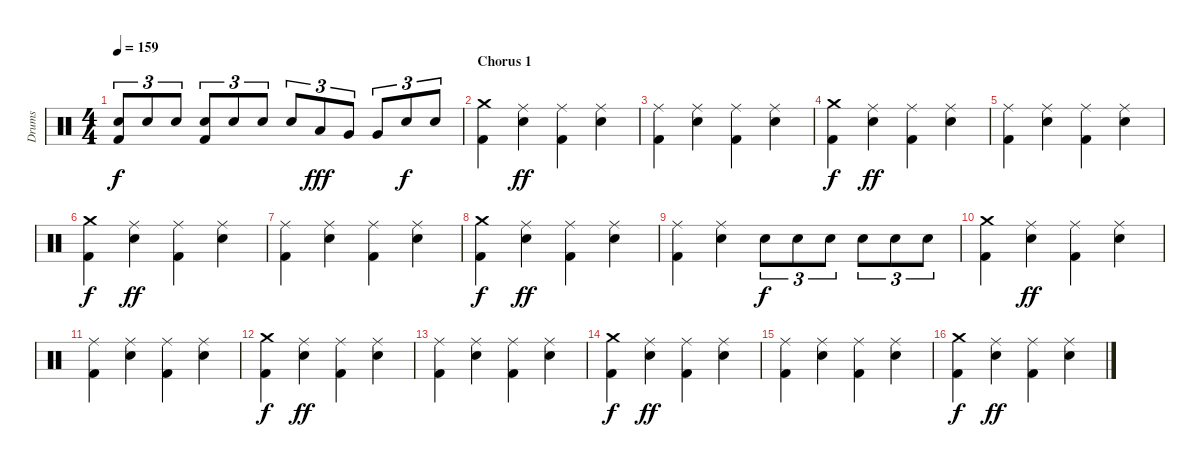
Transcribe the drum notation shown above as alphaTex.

\track ("Drums" "Drums") {instrument percussion}
\staff {score}
\articulation defaults
\ts (4 4)
\tempo 159
\clef neutral
\ks c
("Snare (hit) 2" "Kick (hit) 2").8{tu (3 2) dy f} "Snare (hit) 2".8{tu (3 2)} "Snare (hit) 2".8{tu (3 2)} ("Snare (hit) 2" "Kick (hit) 2").8{tu (3 2)} "Snare (hit) 2".8{tu (3 2)} "Snare (hit) 2".8{tu (3 2)} "Snare (hit) 2".8{tu (3 2)} "Low Tom (hit)".8{tu (3 2) dy fff} "Very Low Tom (hit)".8{tu (3 2)} "Very Low Tom (hit)".8{tu (3 2)} "Snare (hit) 2".8{tu (3 2) dy f} "Snare (hit) 2".8{tu (3 2)} |
\section ("" "Chorus 1")
("Crash medium (hit)" "Kick (hit) 2").4 ("Ride (middle)" "Snare (hit) 2").4{dy ff} ("Ride (middle)" "Kick (hit) 2").4 ("Ride (middle)" "Snare (hit) 2").4 |
("Ride (middle)" "Kick (hit) 2").4 ("Ride (middle)" "Snare (hit) 2").4 ("Ride (middle)" "Kick (hit) 2").4 ("Ride (middle)" "Snare (hit) 2").4 |
("Crash medium (hit)" "Kick (hit) 2").4{dy f} ("Ride (middle)" "Snare (hit) 2").4{dy ff} ("Ride (middle)" "Kick (hit) 2").4 ("Ride (middle)" "Snare (hit) 2").4 |
("Ride (middle)" "Kick (hit) 2").4 ("Ride (middle)" "Snare (hit) 2").4 ("Ride (middle)" "Kick (hit) 2").4 ("Ride (middle)" "Snare (hit) 2").4 |
("Crash medium (hit)" "Kick (hit) 2").4{dy f} ("Ride (middle)" "Snare (hit) 2").4{dy ff} ("Ride (middle)" "Kick (hit) 2").4 ("Ride (middle)" "Snare (hit) 2").4 |
("Ride (middle)" "Kick (hit) 2").4 ("Ride (middle)" "Snare (hit) 2").4 ("Ride (middle)" "Kick (hit) 2").4 ("Ride (middle)" "Snare (hit) 2").4 |
("Crash medium (hit)" "Kick (hit) 2").4{dy f} ("Ride (middle)" "Snare (hit) 2").4{dy ff} ("Ride (middle)" "Kick (hit) 2").4 ("Ride (middle)" "Snare (hit) 2").4 |
("Ride (middle)" "Kick (hit) 2").4 ("Ride (middle)" "Snare (hit) 2").4 "Snare (hit) 2".8{tu (3 2) dy f} "Snare (hit) 2".8{tu (3 2)} "Snare (hit) 2".8{tu (3 2)} "Snare (hit) 2".8{tu (3 2)} "Snare (hit) 2".8{tu (3 2)} "Snare (hit) 2".8{tu (3 2)} |
("Crash medium (hit)" "Kick (hit) 2").4 ("Ride (middle)" "Snare (hit) 2").4{dy ff} ("Ride (middle)" "Kick (hit) 2").4 ("Ride (middle)" "Snare (hit) 2").4 |
("Ride (middle)" "Kick (hit) 2").4 ("Ride (middle)" "Snare (hit) 2").4 ("Ride (middle)" "Kick (hit) 2").4 ("Ride (middle)" "Snare (hit) 2").4 |
("Crash medium (hit)" "Kick (hit) 2").4{dy f} ("Ride (middle)" "Snare (hit) 2").4{dy ff} ("Ride (middle)" "Kick (hit) 2").4 ("Ride (middle)" "Snare (hit) 2").4 |
("Ride (middle)" "Kick (hit) 2").4 ("Ride (middle)" "Snare (hit) 2").4 ("Ride (middle)" "Kick (hit) 2").4 ("Ride (middle)" "Snare (hit) 2").4 |
("Crash medium (hit)" "Kick (hit) 2").4{dy f} ("Ride (middle)" "Snare (hit) 2").4{dy ff} ("Ride (middle)" "Kick (hit) 2").4 ("Ride (middle)" "Snare (hit) 2").4 |
("Ride (middle)" "Kick (hit) 2").4 ("Ride (middle)" "Snare (hit) 2").4 ("Ride (middle)" "Kick (hit) 2").4 ("Ride (middle)" "Snare (hit) 2").4 |
("Crash medium (hit)" "Kick (hit) 2").4{dy f} ("Ride (middle)" "Snare (hit) 2").4{dy ff} ("Ride (middle)" "Kick (hit) 2").4 ("Ride (middle)" "Snare (hit) 2").4
